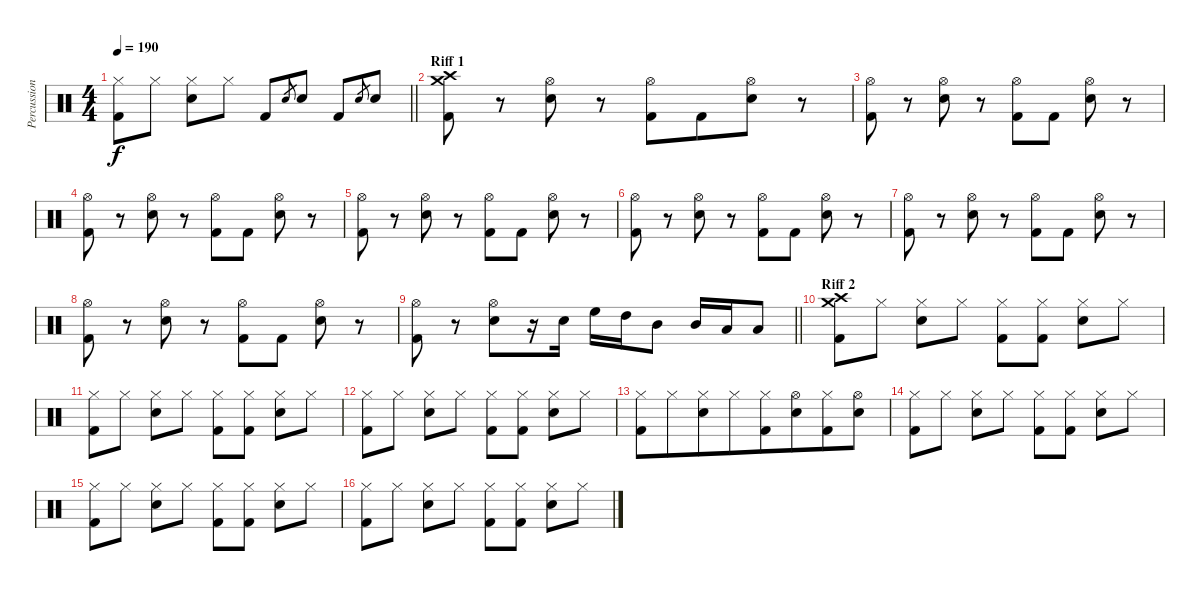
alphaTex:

\track ("Percussion" "Percussion") {instrument percussion}
\staff {score}
\articulation defaults
\ts (4 4)
\tempo 190
\clef neutral
\barLineRight lightlight
\ks c
("Hi-Hat (closed)" "Kick (hit) 2").8{dy f} "Hi-Hat (closed)".8 ("Hi-Hat (closed)" "Electric Snare (hit)").8 "Hi-Hat (closed)".8 "Kick (hit) 2".8 "Electric Snare (hit)".8{gr beam merge} "Electric Snare (hit)".8 "Kick (hit) 2".8 "Electric Snare (hit)".8{gr} "Electric Snare (hit)".8 |
\section ("" "Riff 1")
("Crash medium (hit)" "Crash high (hit)" "Kick (hit) 2").8 r.8 ("Hi-Hat (open)" "Electric Snare (hit)").8 r.8{beam merge} ("Hi-Hat (open)" "Kick (hit) 2").8 "Kick (hit) 2".8{beam merge} ("Hi-Hat (open)" "Electric Snare (hit)").8{beam merge} r.8 |
("Hi-Hat (open)" "Kick (hit) 2").8 r.8 ("Hi-Hat (open)" "Electric Snare (hit)").8 r.8 ("Hi-Hat (open)" "Kick (hit) 2").8 "Kick (hit) 2".8 ("Hi-Hat (open)" "Electric Snare (hit)").8 r.8 |
("Hi-Hat (open)" "Kick (hit) 2").8 r.8 ("Hi-Hat (open)" "Electric Snare (hit)").8 r.8 ("Hi-Hat (open)" "Kick (hit) 2").8 "Kick (hit) 2".8 ("Hi-Hat (open)" "Electric Snare (hit)").8 r.8 |
("Hi-Hat (open)" "Kick (hit) 2").8 r.8 ("Hi-Hat (open)" "Electric Snare (hit)").8 r.8 ("Hi-Hat (open)" "Kick (hit) 2").8 "Kick (hit) 2".8 ("Hi-Hat (open)" "Electric Snare (hit)").8 r.8 |
("Hi-Hat (open)" "Kick (hit) 2").8 r.8 ("Hi-Hat (open)" "Electric Snare (hit)").8 r.8 ("Hi-Hat (open)" "Kick (hit) 2").8 "Kick (hit) 2".8 ("Hi-Hat (open)" "Electric Snare (hit)").8 r.8 |
("Hi-Hat (open)" "Kick (hit) 2").8 r.8 ("Hi-Hat (open)" "Electric Snare (hit)").8 r.8 ("Hi-Hat (open)" "Kick (hit) 2").8 "Kick (hit) 2".8 ("Hi-Hat (open)" "Electric Snare (hit)").8 r.8 |
("Hi-Hat (open)" "Kick (hit) 2").8 r.8 ("Hi-Hat (open)" "Electric Snare (hit)").8 r.8 ("Hi-Hat (open)" "Kick (hit) 2").8 "Kick (hit) 2".8 ("Hi-Hat (open)" "Electric Snare (hit)").8 r.8 |
\barLineRight lightlight
("Hi-Hat (open)" "Kick (hit) 2").8 r.8 ("Hi-Hat (open)" "Electric Snare (hit)").8 r.16 "Electric Snare (hit)".16 "High Floor Tom (hit)".16 "High Tom (hit)".16 "Mid Tom (hit)".8 "Mid Tom (hit)".16 "Low Tom (hit)".16 "Low Floor Tom (hit)".8 |
\section ("" "Riff 2")
("Crash medium (hit)" "Crash high (hit)" "Kick (hit) 2").8 "Hi-Hat (closed)".8 ("Hi-Hat (closed)" "Electric Snare (hit)").8 "Hi-Hat (closed)".8 ("Hi-Hat (closed)" "Kick (hit) 2").8 ("Hi-Hat (closed)" "Kick (hit) 2").8 ("Hi-Hat (closed)" "Electric Snare (hit)").8 "Hi-Hat (closed)".8 |
("Hi-Hat (closed)" "Kick (hit) 2").8 "Hi-Hat (closed)".8 ("Hi-Hat (closed)" "Electric Snare (hit)").8 "Hi-Hat (closed)".8 ("Hi-Hat (closed)" "Kick (hit) 2").8 ("Hi-Hat (closed)" "Kick (hit) 2").8 ("Hi-Hat (closed)" "Electric Snare (hit)").8 "Hi-Hat (closed)".8 |
("Hi-Hat (closed)" "Kick (hit) 2").8 "Hi-Hat (closed)".8 ("Hi-Hat (closed)" "Electric Snare (hit)").8 "Hi-Hat (closed)".8 ("Hi-Hat (closed)" "Kick (hit) 2").8 ("Hi-Hat (closed)" "Kick (hit) 2").8 ("Hi-Hat (closed)" "Electric Snare (hit)").8 "Hi-Hat (closed)".8 |
("Hi-Hat (closed)" "Kick (hit) 2").8{beam merge} "Hi-Hat (closed)".8{beam merge} ("Hi-Hat (closed)" "Electric Snare (hit)").8{beam merge} "Hi-Hat (closed)".8{beam merge} ("Hi-Hat (closed)" "Kick (hit) 2").8{beam merge} ("Hi-Hat (open)" "Electric Snare (hit)").8{beam merge} ("Hi-Hat (closed)" "Kick (hit) 2").8{beam merge} ("Hi-Hat (open)" "Electric Snare (hit)").8 |
("Hi-Hat (closed)" "Kick (hit) 2").8 "Hi-Hat (closed)".8 ("Hi-Hat (closed)" "Electric Snare (hit)").8 "Hi-Hat (closed)".8 ("Hi-Hat (closed)" "Kick (hit) 2").8 ("Hi-Hat (closed)" "Kick (hit) 2").8 ("Hi-Hat (closed)" "Electric Snare (hit)").8 "Hi-Hat (closed)".8 |
("Hi-Hat (closed)" "Kick (hit) 2").8 "Hi-Hat (closed)".8 ("Hi-Hat (closed)" "Electric Snare (hit)").8 "Hi-Hat (closed)".8 ("Hi-Hat (closed)" "Kick (hit) 2").8 ("Hi-Hat (closed)" "Kick (hit) 2").8 ("Hi-Hat (closed)" "Electric Snare (hit)").8 "Hi-Hat (closed)".8 |
("Hi-Hat (closed)" "Kick (hit) 2").8 "Hi-Hat (closed)".8 ("Hi-Hat (closed)" "Electric Snare (hit)").8 "Hi-Hat (closed)".8 ("Hi-Hat (closed)" "Kick (hit) 2").8 ("Hi-Hat (closed)" "Kick (hit) 2").8 ("Hi-Hat (closed)" "Electric Snare (hit)").8 "Hi-Hat (closed)".8
